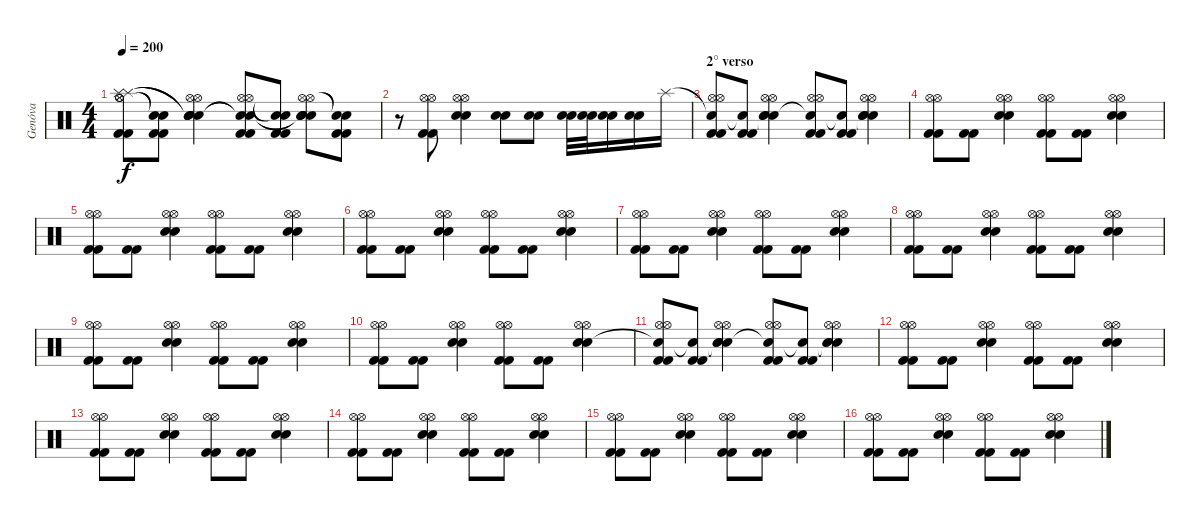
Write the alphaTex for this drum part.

\track ("Genóva" "Genóva") {instrument percussion}
\staff {score}
\articulation defaults
\ts (4 4)
\tempo 200
\clef neutral
\ks c
("Kick (hit) 2" "Kick (hit) 2" "Hi-Hat (open)" "Hi-Hat (open)" "Splash (hit)" "Splash (hit)").8{dy f} ("Kick (hit) 2" "Kick (hit) 2" "Snare (hit)"{t} "Snare (hit)"{t}).8 ("Snare (hit) 2" "Snare (hit) 2" "Hi-Hat (open)" "Hi-Hat (open)" "Snare (hit)"{t} "Snare (hit)"{t}).4 ("Kick (hit) 2" "Kick (hit) 2" "Hi-Hat (open)" "Hi-Hat (open)" "Snare (hit)"{t} "Snare (hit)"{t}).8 ("Kick (hit) 2" "Kick (hit) 2" "Snare (hit)"{t} "Snare (hit)"{t}).8 ("Snare (hit) 2" "Snare (hit) 2" "Hi-Hat (open)" "Hi-Hat (open)" "Snare (hit)"{t} "Snare (hit)"{t}).8 ("Kick (hit) 2" "Kick (hit) 2" "Snare (hit)"{t} "Snare (hit)"{t}).8 |
r.8 ("Kick (hit) 2" "Kick (hit) 2" "Hi-Hat (open)" "Hi-Hat (open)").8 ("Snare (hit) 2" "Snare (hit) 2" "Hi-Hat (open)" "Hi-Hat (open)").4 ("Snare (hit) 2" "Snare (hit) 2").8 ("Snare (hit) 2" "Snare (hit) 2").8 ("Snare (hit) 2" "Snare (hit) 2").32 ("Snare (hit) 2" "Snare (hit) 2").32 ("Snare (hit) 2" "Snare (hit) 2").16 ("Snare (hit) 2" "Snare (hit) 2").16 "Splash (hit)".16 |
\section ("" "2° verso")
("Snare (hit)"{t} "Kick (hit) 2" "Kick (hit) 2" "Hi-Hat (open)" "Hi-Hat (open)").8 ("Snare (hit)"{t} "Kick (hit) 2" "Kick (hit) 2").8 ("Snare (hit)"{t} "Snare (hit) 2" "Snare (hit) 2" "Hi-Hat (open)" "Hi-Hat (open)").4 ("Snare (hit)"{t} "Kick (hit) 2" "Kick (hit) 2" "Hi-Hat (open)" "Hi-Hat (open)").8 ("Snare (hit)"{t} "Kick (hit) 2" "Kick (hit) 2").8 ("Snare (hit)"{t} "Snare (hit) 2" "Snare (hit) 2" "Hi-Hat (open)" "Hi-Hat (open)").4 |
("Kick (hit) 2" "Kick (hit) 2" "Hi-Hat (open)" "Hi-Hat (open)").8 ("Kick (hit) 2" "Kick (hit) 2").8 ("Snare (hit) 2" "Snare (hit) 2" "Hi-Hat (open)" "Hi-Hat (open)").4 ("Kick (hit) 2" "Kick (hit) 2" "Hi-Hat (open)" "Hi-Hat (open)").8 ("Kick (hit) 2" "Kick (hit) 2").8 ("Snare (hit) 2" "Snare (hit) 2" "Hi-Hat (open)" "Hi-Hat (open)").4 |
("Kick (hit) 2" "Kick (hit) 2" "Hi-Hat (open)" "Hi-Hat (open)").8 ("Kick (hit) 2" "Kick (hit) 2").8 ("Snare (hit) 2" "Snare (hit) 2" "Hi-Hat (open)" "Hi-Hat (open)").4 ("Kick (hit) 2" "Kick (hit) 2" "Hi-Hat (open)" "Hi-Hat (open)").8 ("Kick (hit) 2" "Kick (hit) 2").8 ("Snare (hit) 2" "Snare (hit) 2" "Hi-Hat (open)" "Hi-Hat (open)").4 |
("Kick (hit) 2" "Kick (hit) 2" "Hi-Hat (open)" "Hi-Hat (open)").8 ("Kick (hit) 2" "Kick (hit) 2").8 ("Snare (hit) 2" "Snare (hit) 2" "Hi-Hat (open)" "Hi-Hat (open)").4 ("Kick (hit) 2" "Kick (hit) 2" "Hi-Hat (open)" "Hi-Hat (open)").8 ("Kick (hit) 2" "Kick (hit) 2").8 ("Snare (hit) 2" "Snare (hit) 2" "Hi-Hat (open)" "Hi-Hat (open)").4 |
("Kick (hit) 2" "Kick (hit) 2" "Hi-Hat (open)" "Hi-Hat (open)").8 ("Kick (hit) 2" "Kick (hit) 2").8 ("Snare (hit) 2" "Snare (hit) 2" "Hi-Hat (open)" "Hi-Hat (open)").4 ("Kick (hit) 2" "Kick (hit) 2" "Hi-Hat (open)" "Hi-Hat (open)").8 ("Kick (hit) 2" "Kick (hit) 2").8 ("Snare (hit) 2" "Snare (hit) 2" "Hi-Hat (open)" "Hi-Hat (open)").4 |
("Kick (hit) 2" "Kick (hit) 2" "Hi-Hat (open)" "Hi-Hat (open)").8 ("Kick (hit) 2" "Kick (hit) 2").8 ("Snare (hit) 2" "Snare (hit) 2" "Hi-Hat (open)" "Hi-Hat (open)").4 ("Kick (hit) 2" "Kick (hit) 2" "Hi-Hat (open)" "Hi-Hat (open)").8 ("Kick (hit) 2" "Kick (hit) 2").8 ("Snare (hit) 2" "Snare (hit) 2" "Hi-Hat (open)" "Hi-Hat (open)").4 |
("Kick (hit) 2" "Kick (hit) 2" "Hi-Hat (open)" "Hi-Hat (open)").8 ("Kick (hit) 2" "Kick (hit) 2").8 ("Snare (hit) 2" "Snare (hit) 2" "Hi-Hat (open)" "Hi-Hat (open)").4 ("Kick (hit) 2" "Kick (hit) 2" "Hi-Hat (open)" "Hi-Hat (open)").8 ("Kick (hit) 2" "Kick (hit) 2").8 ("Snare (hit) 2" "Snare (hit) 2" "Hi-Hat (open)" "Hi-Hat (open)").4 |
("Kick (hit) 2" "Kick (hit) 2" "Hi-Hat (open)" "Hi-Hat (open)").8 ("Kick (hit) 2" "Kick (hit) 2").8 ("Snare (hit) 2" "Snare (hit) 2" "Hi-Hat (open)" "Hi-Hat (open)").4 ("Kick (hit) 2" "Kick (hit) 2" "Hi-Hat (open)" "Hi-Hat (open)").8 ("Kick (hit) 2" "Kick (hit) 2").8 ("Snare (hit) 2" "Snare (hit) 2" "Hi-Hat (open)" "Hi-Hat (open)").4 |
("Snare (hit)"{t} "Kick (hit) 2" "Kick (hit) 2" "Hi-Hat (open)" "Hi-Hat (open)").8 ("Snare (hit)"{t} "Kick (hit) 2" "Kick (hit) 2").8 ("Snare (hit)"{t} "Snare (hit) 2" "Snare (hit) 2" "Hi-Hat (open)" "Hi-Hat (open)").4 ("Snare (hit)"{t} "Kick (hit) 2" "Kick (hit) 2" "Hi-Hat (open)" "Hi-Hat (open)").8 ("Snare (hit)"{t} "Kick (hit) 2" "Kick (hit) 2").8 ("Snare (hit)"{t} "Snare (hit) 2" "Snare (hit) 2" "Hi-Hat (open)" "Hi-Hat (open)").4 |
("Kick (hit) 2" "Kick (hit) 2" "Hi-Hat (open)" "Hi-Hat (open)").8 ("Kick (hit) 2" "Kick (hit) 2").8 ("Snare (hit) 2" "Snare (hit) 2" "Hi-Hat (open)" "Hi-Hat (open)").4 ("Kick (hit) 2" "Kick (hit) 2" "Hi-Hat (open)" "Hi-Hat (open)").8 ("Kick (hit) 2" "Kick (hit) 2").8 ("Snare (hit) 2" "Snare (hit) 2" "Hi-Hat (open)" "Hi-Hat (open)").4 |
("Kick (hit) 2" "Kick (hit) 2" "Hi-Hat (open)" "Hi-Hat (open)").8 ("Kick (hit) 2" "Kick (hit) 2").8 ("Snare (hit) 2" "Snare (hit) 2" "Hi-Hat (open)" "Hi-Hat (open)").4 ("Kick (hit) 2" "Kick (hit) 2" "Hi-Hat (open)" "Hi-Hat (open)").8 ("Kick (hit) 2" "Kick (hit) 2").8 ("Snare (hit) 2" "Snare (hit) 2" "Hi-Hat (open)" "Hi-Hat (open)").4 |
("Kick (hit) 2" "Kick (hit) 2" "Hi-Hat (open)" "Hi-Hat (open)").8 ("Kick (hit) 2" "Kick (hit) 2").8 ("Snare (hit) 2" "Snare (hit) 2" "Hi-Hat (open)" "Hi-Hat (open)").4 ("Kick (hit) 2" "Kick (hit) 2" "Hi-Hat (open)" "Hi-Hat (open)").8 ("Kick (hit) 2" "Kick (hit) 2").8 ("Snare (hit) 2" "Snare (hit) 2" "Hi-Hat (open)" "Hi-Hat (open)").4 |
("Kick (hit) 2" "Kick (hit) 2" "Hi-Hat (open)" "Hi-Hat (open)").8 ("Kick (hit) 2" "Kick (hit) 2").8 ("Snare (hit) 2" "Snare (hit) 2" "Hi-Hat (open)" "Hi-Hat (open)").4 ("Kick (hit) 2" "Kick (hit) 2" "Hi-Hat (open)" "Hi-Hat (open)").8 ("Kick (hit) 2" "Kick (hit) 2").8 ("Snare (hit) 2" "Snare (hit) 2" "Hi-Hat (open)" "Hi-Hat (open)").4 |
("Kick (hit) 2" "Kick (hit) 2" "Hi-Hat (open)" "Hi-Hat (open)").8 ("Kick (hit) 2" "Kick (hit) 2").8 ("Snare (hit) 2" "Snare (hit) 2" "Hi-Hat (open)" "Hi-Hat (open)").4 ("Kick (hit) 2" "Kick (hit) 2" "Hi-Hat (open)" "Hi-Hat (open)").8 ("Kick (hit) 2" "Kick (hit) 2").8 ("Snare (hit) 2" "Snare (hit) 2" "Hi-Hat (open)" "Hi-Hat (open)").4
